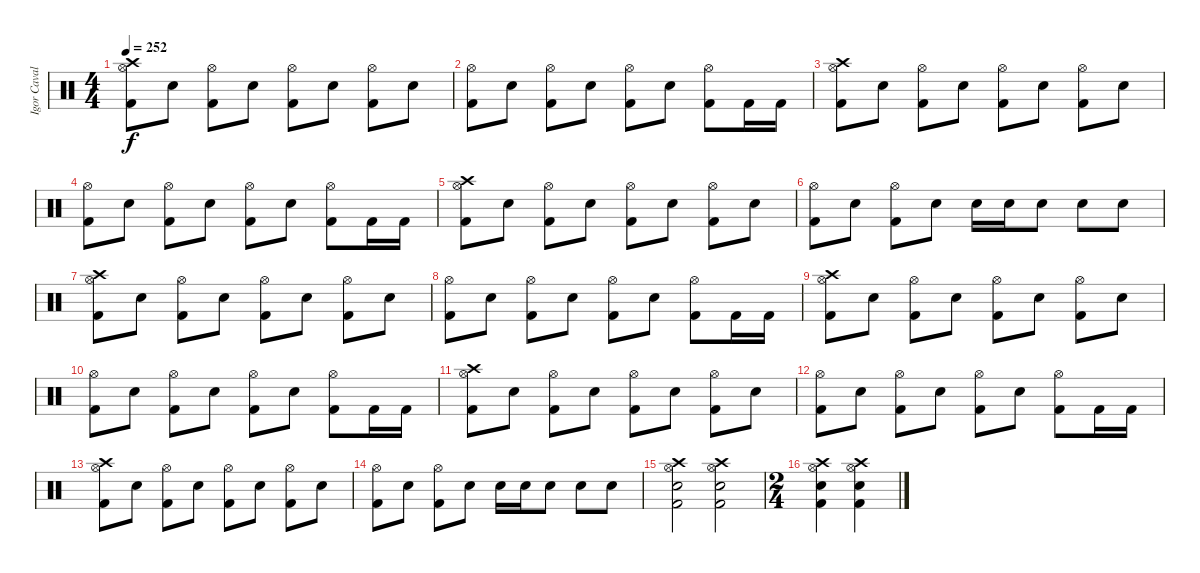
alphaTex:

\track ("Igor Cavalera" "Igor Caval") {instrument percussion}
\staff {score}
\articulation defaults
\ts (4 4)
\tempo 252
\clef neutral
\ks c
("Crash high (hit)" "Hi-Hat (open)" "Kick (hit) 2").8{dy f} "Electric Snare (hit)".8 ("Hi-Hat (open)" "Kick (hit) 2").8 "Electric Snare (hit)".8 ("Hi-Hat (open)" "Kick (hit) 2").8 "Electric Snare (hit)".8 ("Hi-Hat (open)" "Kick (hit) 2").8 "Electric Snare (hit)".8 |
("Hi-Hat (open)" "Kick (hit) 2").8 "Electric Snare (hit)".8 ("Hi-Hat (open)" "Kick (hit) 2").8 "Electric Snare (hit)".8 ("Hi-Hat (open)" "Kick (hit) 2").8 "Electric Snare (hit)".8 ("Hi-Hat (open)" "Kick (hit) 2").8 "Kick (hit) 2".16 "Kick (hit) 2".16 |
("Crash high (hit)" "Hi-Hat (open)" "Kick (hit) 2").8 "Electric Snare (hit)".8 ("Hi-Hat (open)" "Kick (hit) 2").8 "Electric Snare (hit)".8 ("Hi-Hat (open)" "Kick (hit) 2").8 "Electric Snare (hit)".8 ("Hi-Hat (open)" "Kick (hit) 2").8 "Electric Snare (hit)".8 |
("Hi-Hat (open)" "Kick (hit) 2").8 "Electric Snare (hit)".8 ("Hi-Hat (open)" "Kick (hit) 2").8 "Electric Snare (hit)".8 ("Hi-Hat (open)" "Kick (hit) 2").8 "Electric Snare (hit)".8 ("Hi-Hat (open)" "Kick (hit) 2").8 "Kick (hit) 2".16 "Kick (hit) 2".16 |
("Crash high (hit)" "Hi-Hat (open)" "Kick (hit) 2").8 "Electric Snare (hit)".8 ("Hi-Hat (open)" "Kick (hit) 2").8 "Electric Snare (hit)".8 ("Hi-Hat (open)" "Kick (hit) 2").8 "Electric Snare (hit)".8 ("Hi-Hat (open)" "Kick (hit) 2").8 "Electric Snare (hit)".8 |
("Hi-Hat (open)" "Kick (hit) 2").8 "Electric Snare (hit)".8 ("Hi-Hat (open)" "Kick (hit) 2").8 "Electric Snare (hit)".8 "Electric Snare (hit)".16 "Electric Snare (hit)".16 "Electric Snare (hit)".8 "Electric Snare (hit)".8 "Electric Snare (hit)".8 |
("Crash high (hit)" "Hi-Hat (open)" "Kick (hit) 2").8 "Electric Snare (hit)".8 ("Hi-Hat (open)" "Kick (hit) 2").8 "Electric Snare (hit)".8 ("Hi-Hat (open)" "Kick (hit) 2").8 "Electric Snare (hit)".8 ("Hi-Hat (open)" "Kick (hit) 2").8 "Electric Snare (hit)".8 |
("Hi-Hat (open)" "Kick (hit) 2").8 "Electric Snare (hit)".8 ("Hi-Hat (open)" "Kick (hit) 2").8 "Electric Snare (hit)".8 ("Hi-Hat (open)" "Kick (hit) 2").8 "Electric Snare (hit)".8 ("Hi-Hat (open)" "Kick (hit) 2").8 "Kick (hit) 2".16 "Kick (hit) 2".16 |
("Crash high (hit)" "Hi-Hat (open)" "Kick (hit) 2").8 "Electric Snare (hit)".8 ("Hi-Hat (open)" "Kick (hit) 2").8 "Electric Snare (hit)".8 ("Hi-Hat (open)" "Kick (hit) 2").8 "Electric Snare (hit)".8 ("Hi-Hat (open)" "Kick (hit) 2").8 "Electric Snare (hit)".8 |
("Hi-Hat (open)" "Kick (hit) 2").8 "Electric Snare (hit)".8 ("Hi-Hat (open)" "Kick (hit) 2").8 "Electric Snare (hit)".8 ("Hi-Hat (open)" "Kick (hit) 2").8 "Electric Snare (hit)".8 ("Hi-Hat (open)" "Kick (hit) 2").8 "Kick (hit) 2".16 "Kick (hit) 2".16 |
("Crash high (hit)" "Hi-Hat (open)" "Kick (hit) 2").8 "Electric Snare (hit)".8 ("Hi-Hat (open)" "Kick (hit) 2").8 "Electric Snare (hit)".8 ("Hi-Hat (open)" "Kick (hit) 2").8 "Electric Snare (hit)".8 ("Hi-Hat (open)" "Kick (hit) 2").8 "Electric Snare (hit)".8 |
("Hi-Hat (open)" "Kick (hit) 2").8 "Electric Snare (hit)".8 ("Hi-Hat (open)" "Kick (hit) 2").8 "Electric Snare (hit)".8 ("Hi-Hat (open)" "Kick (hit) 2").8 "Electric Snare (hit)".8 ("Hi-Hat (open)" "Kick (hit) 2").8 "Kick (hit) 2".16 "Kick (hit) 2".16 |
("Crash high (hit)" "Hi-Hat (open)" "Kick (hit) 2").8 "Electric Snare (hit)".8 ("Hi-Hat (open)" "Kick (hit) 2").8 "Electric Snare (hit)".8 ("Hi-Hat (open)" "Kick (hit) 2").8 "Electric Snare (hit)".8 ("Hi-Hat (open)" "Kick (hit) 2").8 "Electric Snare (hit)".8 |
("Hi-Hat (open)" "Kick (hit) 2").8 "Electric Snare (hit)".8 ("Hi-Hat (open)" "Kick (hit) 2").8 "Electric Snare (hit)".8 "Electric Snare (hit)".16 "Electric Snare (hit)".16 "Electric Snare (hit)".8 "Electric Snare (hit)".8 "Electric Snare (hit)".8 |
("Crash high (hit)" "Hi-Hat (open)" "Electric Snare (hit)" "Kick (hit) 2").2 ("Crash high (hit)" "Hi-Hat (open)" "Electric Snare (hit)" "Kick (hit) 2").2 |
\ts (2 4)
("Crash high (hit)" "Hi-Hat (open)" "Electric Snare (hit)" "Kick (hit) 2").4 ("Crash high (hit)" "Hi-Hat (open)" "Electric Snare (hit)" "Kick (hit) 2").4
